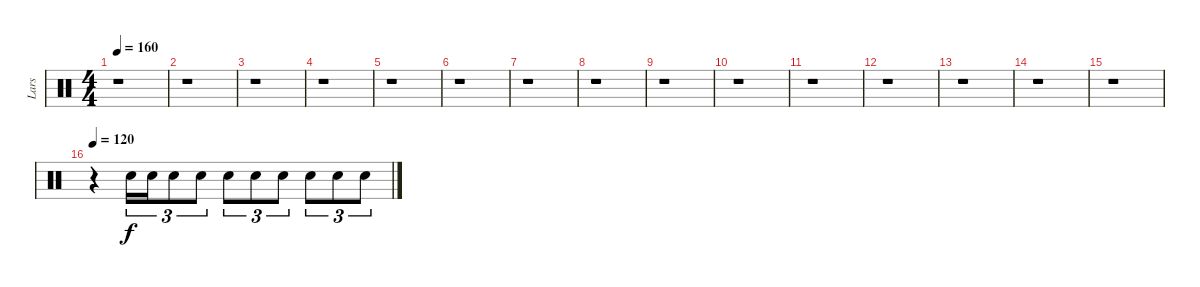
\track ("Lars" "Lars") {instrument percussion}
\staff {score}
\articulation defaults
\ts (4 4)
\tempo 160
\clef neutral
\ks c
r.1{dy f} |
r.1 |
r.1 |
r.1 |
r.1 |
r.1 |
r.1 |
r.1 |
r.1 |
r.1 |
r.1 |
r.1 |
r.1 |
r.1 |
r.1 |
\tempo 120
r.4 "Electric Snare (hit)".16{tu (3 2)} "Electric Snare (hit)".16{tu (3 2)} "Electric Snare (hit)".8{tu (3 2)} "Electric Snare (hit)".8{tu (3 2)} "Electric Snare (hit)".8{tu (3 2)} "Electric Snare (hit)".8{tu (3 2)} "Electric Snare (hit)".8{tu (3 2)} "Electric Snare (hit)".8{tu (3 2)} "Electric Snare (hit)".8{tu (3 2)} "Electric Snare (hit)".8{tu (3 2)}
